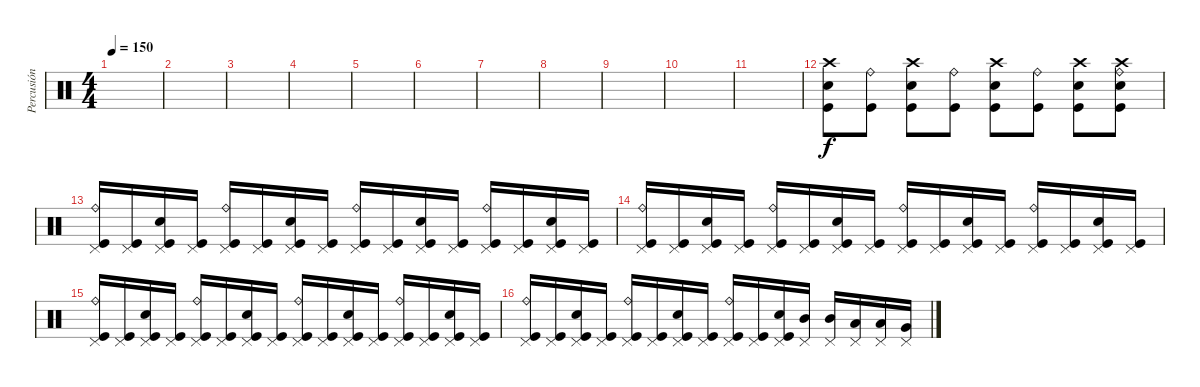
\track ("Percusión" "Percusión") {instrument percussion}
\staff {score}
\articulation defaults
\ts (4 4)
\tempo 150
\clef neutral
\ks c
|
|
|
|
|
|
|
|
|
|
|
("Crash high (hit)" "Electric Snare (hit)" "Kick (hit)").8 ("Ride (bell)" "Kick (hit)").8 ("Crash high (hit)" "Electric Snare (hit)" "Kick (hit)").8 ("Ride (bell)" "Kick (hit)").8 ("Crash high (hit)" "Electric Snare (hit)" "Kick (hit)").8 ("Ride (bell)" "Kick (hit)").8 ("Crash high (hit)" "Electric Snare (hit)" "Kick (hit)").8 ("Crash high (hit)" "Ride (bell)" "Electric Snare (hit)" "Kick (hit)").8 |
("Pedal Hi-Hat (hit)" "Ride (bell)" "Kick (hit)").16 ("Pedal Hi-Hat (hit)" "Kick (hit)").16 ("Pedal Hi-Hat (hit)" "Electric Snare (hit)" "Kick (hit)").16 ("Pedal Hi-Hat (hit)" "Kick (hit)").16 ("Pedal Hi-Hat (hit)" "Ride (bell)" "Kick (hit)").16 ("Pedal Hi-Hat (hit)" "Kick (hit)").16 ("Pedal Hi-Hat (hit)" "Electric Snare (hit)" "Kick (hit)").16 ("Pedal Hi-Hat (hit)" "Kick (hit)").16 ("Pedal Hi-Hat (hit)" "Ride (bell)" "Kick (hit)").16 ("Pedal Hi-Hat (hit)" "Kick (hit)").16 ("Pedal Hi-Hat (hit)" "Electric Snare (hit)" "Kick (hit)").16 ("Pedal Hi-Hat (hit)" "Kick (hit)").16 ("Pedal Hi-Hat (hit)" "Ride (bell)" "Kick (hit)").16 ("Pedal Hi-Hat (hit)" "Kick (hit)").16 ("Pedal Hi-Hat (hit)" "Electric Snare (hit)" "Kick (hit)").16 ("Pedal Hi-Hat (hit)" "Kick (hit)").16 |
("Pedal Hi-Hat (hit)" "Ride (bell)" "Kick (hit)").16 ("Pedal Hi-Hat (hit)" "Kick (hit)").16 ("Pedal Hi-Hat (hit)" "Electric Snare (hit)" "Kick (hit)").16 ("Pedal Hi-Hat (hit)" "Kick (hit)").16 ("Pedal Hi-Hat (hit)" "Ride (bell)" "Kick (hit)").16 ("Pedal Hi-Hat (hit)" "Kick (hit)").16 ("Pedal Hi-Hat (hit)" "Electric Snare (hit)" "Kick (hit)").16 ("Pedal Hi-Hat (hit)" "Kick (hit)").16 ("Pedal Hi-Hat (hit)" "Ride (bell)" "Kick (hit)").16 ("Pedal Hi-Hat (hit)" "Kick (hit)").16 ("Pedal Hi-Hat (hit)" "Electric Snare (hit)" "Kick (hit)").16 ("Pedal Hi-Hat (hit)" "Kick (hit)").16 ("Pedal Hi-Hat (hit)" "Ride (bell)" "Kick (hit)").16 ("Pedal Hi-Hat (hit)" "Kick (hit)").16 ("Pedal Hi-Hat (hit)" "Electric Snare (hit)" "Kick (hit)").16 ("Pedal Hi-Hat (hit)" "Kick (hit)").16 |
("Pedal Hi-Hat (hit)" "Ride (bell)" "Kick (hit)").16 ("Pedal Hi-Hat (hit)" "Kick (hit)").16 ("Pedal Hi-Hat (hit)" "Electric Snare (hit)" "Kick (hit)").16 ("Pedal Hi-Hat (hit)" "Kick (hit)").16 ("Pedal Hi-Hat (hit)" "Ride (bell)" "Kick (hit)").16 ("Pedal Hi-Hat (hit)" "Kick (hit)").16 ("Pedal Hi-Hat (hit)" "Electric Snare (hit)" "Kick (hit)").16 ("Pedal Hi-Hat (hit)" "Kick (hit)").16 ("Pedal Hi-Hat (hit)" "Ride (bell)" "Kick (hit)").16 ("Pedal Hi-Hat (hit)" "Kick (hit)").16 ("Pedal Hi-Hat (hit)" "Electric Snare (hit)" "Kick (hit)").16 ("Pedal Hi-Hat (hit)" "Kick (hit)").16 ("Pedal Hi-Hat (hit)" "Ride (bell)" "Kick (hit)").16 ("Pedal Hi-Hat (hit)" "Kick (hit)").16 ("Pedal Hi-Hat (hit)" "Electric Snare (hit)" "Kick (hit)").16 ("Pedal Hi-Hat (hit)" "Kick (hit)").16 |
("Pedal Hi-Hat (hit)" "Ride (bell)" "Kick (hit)").16 ("Pedal Hi-Hat (hit)" "Kick (hit)").16 ("Pedal Hi-Hat (hit)" "Electric Snare (hit)" "Kick (hit)").16 ("Pedal Hi-Hat (hit)" "Kick (hit)").16 ("Pedal Hi-Hat (hit)" "Ride (bell)" "Kick (hit)").16 ("Pedal Hi-Hat (hit)" "Kick (hit)").16 ("Pedal Hi-Hat (hit)" "Electric Snare (hit)" "Kick (hit)").16 ("Pedal Hi-Hat (hit)" "Kick (hit)").16 ("Pedal Hi-Hat (hit)" "Ride (bell)" "Kick (hit)").16 ("Pedal Hi-Hat (hit)" "Kick (hit)").16 ("Pedal Hi-Hat (hit)" "Electric Snare (hit)" "Kick (hit)").16 ("Pedal Hi-Hat (hit)" "Mid Tom (hit)").16 ("Pedal Hi-Hat (hit)" "Mid Tom (hit)").16 ("Pedal Hi-Hat (hit)" "Low Tom (hit)").16 ("Pedal Hi-Hat (hit)" "Low Tom (hit)").16 ("Pedal Hi-Hat (hit)" "Very Low Tom (hit)").16
